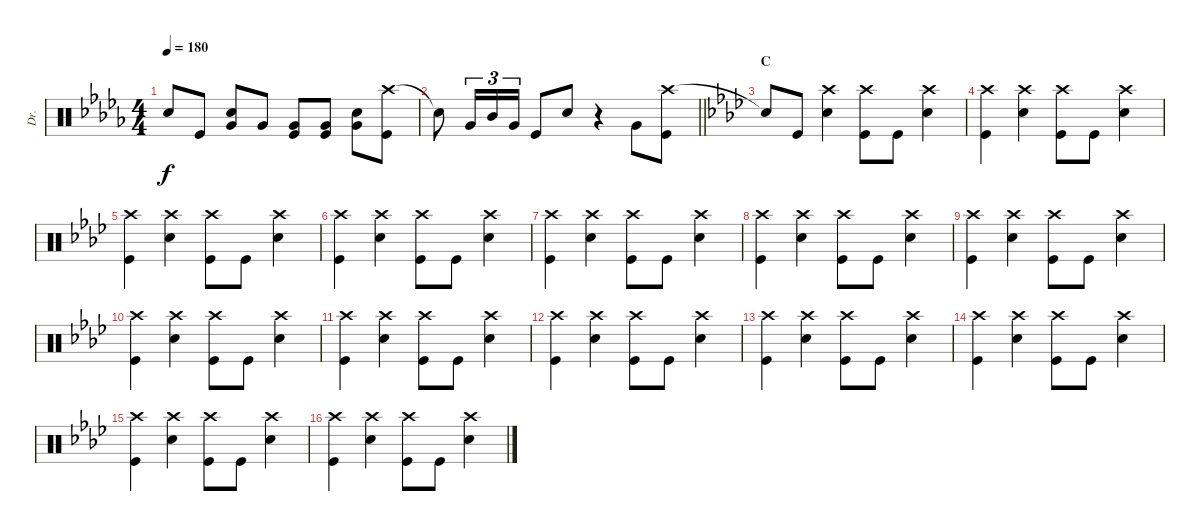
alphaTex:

\track ("Dr." "Dr.") {instrument percussion}
\staff {score}
\articulation defaults
\ts (4 4)
\tempo 180
\clef neutral
\ks db "Snare (hit)"{t}.8{dy f} "Kick (hit)".8
("Snare (hit) 2" "Very Low Tom (hit)").8 "Very Low Tom (hit)".8 ("Very Low Tom (hit)" "Kick (hit)").8 ("Very Low Tom (hit)" "Kick (hit)").8 ("Snare (hit) 2" "Very Low Tom (hit)").8 ("Crash high (hit)" "Kick (hit)").8 |
\barLineRight lightlight "Snare (hit)"{t}.8 "Very Low Tom (hit)".16{tu (3 2)} "Mid Tom (hit)".16{tu (3 2)} "Very Low Tom (hit)".16{tu (3 2)} "Kick (hit)".8 "Snare (hit) 2".8
r.4 "Very Low Tom (hit)".8 ("Crash high (hit)" "Kick (hit)").8 |
\section ("" "C")
\ks ab "Snare (hit)"{t}.8 "Kick (hit)".8
("Crash high (hit)" "Snare (hit) 2").4 ("Crash high (hit)" "Kick (hit)").8 "Kick (hit)".8 ("Crash high (hit)" "Snare (hit) 2").4 |
("Crash high (hit)" "Kick (hit)").4 ("Crash high (hit)" "Snare (hit) 2").4 ("Crash high (hit)" "Kick (hit)").8 "Kick (hit)".8 ("Crash high (hit)" "Snare (hit) 2").4 |
("Crash high (hit)" "Kick (hit)").4 ("Crash high (hit)" "Snare (hit) 2").4 ("Crash high (hit)" "Kick (hit)").8 "Kick (hit)".8 ("Crash high (hit)" "Snare (hit) 2").4 |
("Crash high (hit)" "Kick (hit)").4 ("Crash high (hit)" "Snare (hit) 2").4 ("Crash high (hit)" "Kick (hit)").8 "Kick (hit)".8 ("Crash high (hit)" "Snare (hit) 2").4 |
("Crash high (hit)" "Kick (hit)").4 ("Crash high (hit)" "Snare (hit) 2").4 ("Crash high (hit)" "Kick (hit)").8 "Kick (hit)".8 ("Crash high (hit)" "Snare (hit) 2").4 |
("Crash high (hit)" "Kick (hit)").4 ("Crash high (hit)" "Snare (hit) 2").4 ("Crash high (hit)" "Kick (hit)").8 "Kick (hit)".8 ("Crash high (hit)" "Snare (hit) 2").4 |
("Crash high (hit)" "Kick (hit)").4 ("Crash high (hit)" "Snare (hit) 2").4 ("Crash high (hit)" "Kick (hit)").8 "Kick (hit)".8 ("Crash high (hit)" "Snare (hit) 2").4 |
("Crash high (hit)" "Kick (hit)").4 ("Crash high (hit)" "Snare (hit) 2").4 ("Crash high (hit)" "Kick (hit)").8 "Kick (hit)".8 ("Crash high (hit)" "Snare (hit) 2").4 |
("Crash high (hit)" "Kick (hit)").4 ("Crash high (hit)" "Snare (hit) 2").4 ("Crash high (hit)" "Kick (hit)").8 "Kick (hit)".8 ("Crash high (hit)" "Snare (hit) 2").4 |
("Crash high (hit)" "Kick (hit)").4 ("Crash high (hit)" "Snare (hit) 2").4 ("Crash high (hit)" "Kick (hit)").8 "Kick (hit)".8 ("Crash high (hit)" "Snare (hit) 2").4 |
("Crash high (hit)" "Kick (hit)").4 ("Crash high (hit)" "Snare (hit) 2").4 ("Crash high (hit)" "Kick (hit)").8 "Kick (hit)".8 ("Crash high (hit)" "Snare (hit) 2").4 |
("Crash high (hit)" "Kick (hit)").4 ("Crash high (hit)" "Snare (hit) 2").4 ("Crash high (hit)" "Kick (hit)").8 "Kick (hit)".8 ("Crash high (hit)" "Snare (hit) 2").4 |
("Crash high (hit)" "Kick (hit)").4 ("Crash high (hit)" "Snare (hit) 2").4 ("Crash high (hit)" "Kick (hit)").8 "Kick (hit)".8 ("Crash high (hit)" "Snare (hit) 2").4 |
("Crash high (hit)" "Kick (hit)").4 ("Crash high (hit)" "Snare (hit) 2").4 ("Crash high (hit)" "Kick (hit)").8 "Kick (hit)".8 ("Crash high (hit)" "Snare (hit) 2").4
